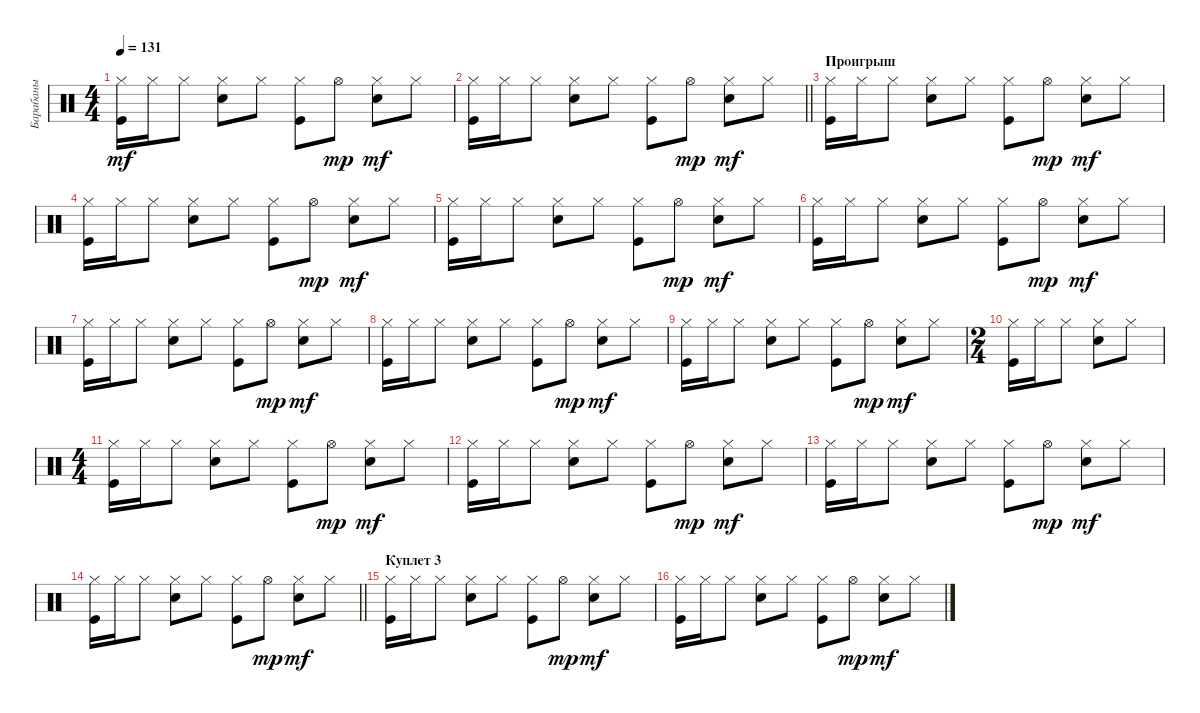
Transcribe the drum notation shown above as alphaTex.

\track ("Барабаны" "Барабаны") {instrument percussion}
\staff {score}
\articulation defaults
\ts (4 4)
\tempo 131
\clef neutral
\ks c
("Kick (hit)" "Hi-Hat (closed)").16{dy mf} "Hi-Hat (closed)".16 "Hi-Hat (closed)".8 ("Snare (hit) 2" "Hi-Hat (closed)").8 "Hi-Hat (closed)".8 ("Kick (hit)" "Hi-Hat (closed)").8 "Hi-Hat (open)".8{dy mp} ("Snare (hit) 2" "Hi-Hat (closed)").8{dy mf} "Hi-Hat (closed)".8 |
\barLineRight lightlight
("Kick (hit)" "Hi-Hat (closed)").16 "Hi-Hat (closed)".16 "Hi-Hat (closed)".8 ("Snare (hit) 2" "Hi-Hat (closed)").8 "Hi-Hat (closed)".8 ("Kick (hit)" "Hi-Hat (closed)").8 "Hi-Hat (open)".8{dy mp} ("Snare (hit) 2" "Hi-Hat (closed)").8{dy mf} "Hi-Hat (closed)".8 |
\section ("" "Проигрыш")
("Kick (hit)" "Hi-Hat (closed)").16 "Hi-Hat (closed)".16 "Hi-Hat (closed)".8 ("Snare (hit) 2" "Hi-Hat (closed)").8 "Hi-Hat (closed)".8 ("Kick (hit)" "Hi-Hat (closed)").8 "Hi-Hat (open)".8{dy mp} ("Snare (hit) 2" "Hi-Hat (closed)").8{dy mf} "Hi-Hat (closed)".8 |
("Kick (hit)" "Hi-Hat (closed)").16 "Hi-Hat (closed)".16 "Hi-Hat (closed)".8 ("Snare (hit) 2" "Hi-Hat (closed)").8 "Hi-Hat (closed)".8 ("Kick (hit)" "Hi-Hat (closed)").8 "Hi-Hat (open)".8{dy mp} ("Snare (hit) 2" "Hi-Hat (closed)").8{dy mf} "Hi-Hat (closed)".8 |
("Kick (hit)" "Hi-Hat (closed)").16 "Hi-Hat (closed)".16 "Hi-Hat (closed)".8 ("Snare (hit) 2" "Hi-Hat (closed)").8 "Hi-Hat (closed)".8 ("Kick (hit)" "Hi-Hat (closed)").8 "Hi-Hat (open)".8{dy mp} ("Snare (hit) 2" "Hi-Hat (closed)").8{dy mf} "Hi-Hat (closed)".8 |
("Kick (hit)" "Hi-Hat (closed)").16 "Hi-Hat (closed)".16 "Hi-Hat (closed)".8 ("Snare (hit) 2" "Hi-Hat (closed)").8 "Hi-Hat (closed)".8 ("Kick (hit)" "Hi-Hat (closed)").8 "Hi-Hat (open)".8{dy mp} ("Snare (hit) 2" "Hi-Hat (closed)").8{dy mf} "Hi-Hat (closed)".8 |
("Kick (hit)" "Hi-Hat (closed)").16 "Hi-Hat (closed)".16 "Hi-Hat (closed)".8 ("Snare (hit) 2" "Hi-Hat (closed)").8 "Hi-Hat (closed)".8 ("Kick (hit)" "Hi-Hat (closed)").8 "Hi-Hat (open)".8{dy mp} ("Snare (hit) 2" "Hi-Hat (closed)").8{dy mf} "Hi-Hat (closed)".8 |
("Kick (hit)" "Hi-Hat (closed)").16 "Hi-Hat (closed)".16 "Hi-Hat (closed)".8 ("Snare (hit) 2" "Hi-Hat (closed)").8 "Hi-Hat (closed)".8 ("Kick (hit)" "Hi-Hat (closed)").8 "Hi-Hat (open)".8{dy mp} ("Snare (hit) 2" "Hi-Hat (closed)").8{dy mf} "Hi-Hat (closed)".8 |
("Kick (hit)" "Hi-Hat (closed)").16 "Hi-Hat (closed)".16 "Hi-Hat (closed)".8 ("Snare (hit) 2" "Hi-Hat (closed)").8 "Hi-Hat (closed)".8 ("Kick (hit)" "Hi-Hat (closed)").8 "Hi-Hat (open)".8{dy mp} ("Snare (hit) 2" "Hi-Hat (closed)").8{dy mf} "Hi-Hat (closed)".8 |
\ts (2 4)
("Kick (hit)" "Hi-Hat (closed)").16 "Hi-Hat (closed)".16 "Hi-Hat (closed)".8 ("Snare (hit) 2" "Hi-Hat (closed)").8 "Hi-Hat (closed)".8 |
\ts (4 4)
("Kick (hit)" "Hi-Hat (closed)").16 "Hi-Hat (closed)".16 "Hi-Hat (closed)".8 ("Snare (hit) 2" "Hi-Hat (closed)").8 "Hi-Hat (closed)".8 ("Kick (hit)" "Hi-Hat (closed)").8 "Hi-Hat (open)".8{dy mp} ("Snare (hit) 2" "Hi-Hat (closed)").8{dy mf} "Hi-Hat (closed)".8 |
("Kick (hit)" "Hi-Hat (closed)").16 "Hi-Hat (closed)".16 "Hi-Hat (closed)".8 ("Snare (hit) 2" "Hi-Hat (closed)").8 "Hi-Hat (closed)".8 ("Kick (hit)" "Hi-Hat (closed)").8 "Hi-Hat (open)".8{dy mp} ("Snare (hit) 2" "Hi-Hat (closed)").8{dy mf} "Hi-Hat (closed)".8 |
("Kick (hit)" "Hi-Hat (closed)").16 "Hi-Hat (closed)".16 "Hi-Hat (closed)".8 ("Snare (hit) 2" "Hi-Hat (closed)").8 "Hi-Hat (closed)".8 ("Kick (hit)" "Hi-Hat (closed)").8 "Hi-Hat (open)".8{dy mp} ("Snare (hit) 2" "Hi-Hat (closed)").8{dy mf} "Hi-Hat (closed)".8 |
\barLineRight lightlight
("Kick (hit)" "Hi-Hat (closed)").16 "Hi-Hat (closed)".16 "Hi-Hat (closed)".8 ("Snare (hit) 2" "Hi-Hat (closed)").8 "Hi-Hat (closed)".8 ("Kick (hit)" "Hi-Hat (closed)").8 "Hi-Hat (open)".8{dy mp} ("Snare (hit) 2" "Hi-Hat (closed)").8{dy mf} "Hi-Hat (closed)".8 |
\section ("" "Куплет 3")
("Kick (hit)" "Hi-Hat (closed)").16 "Hi-Hat (closed)".16 "Hi-Hat (closed)".8 ("Snare (hit) 2" "Hi-Hat (closed)").8 "Hi-Hat (closed)".8 ("Kick (hit)" "Hi-Hat (closed)").8 "Hi-Hat (open)".8{dy mp} ("Snare (hit) 2" "Hi-Hat (closed)").8{dy mf} "Hi-Hat (closed)".8 |
("Kick (hit)" "Hi-Hat (closed)").16 "Hi-Hat (closed)".16 "Hi-Hat (closed)".8 ("Snare (hit) 2" "Hi-Hat (closed)").8 "Hi-Hat (closed)".8 ("Kick (hit)" "Hi-Hat (closed)").8 "Hi-Hat (open)".8{dy mp} ("Snare (hit) 2" "Hi-Hat (closed)").8{dy mf} "Hi-Hat (closed)".8
